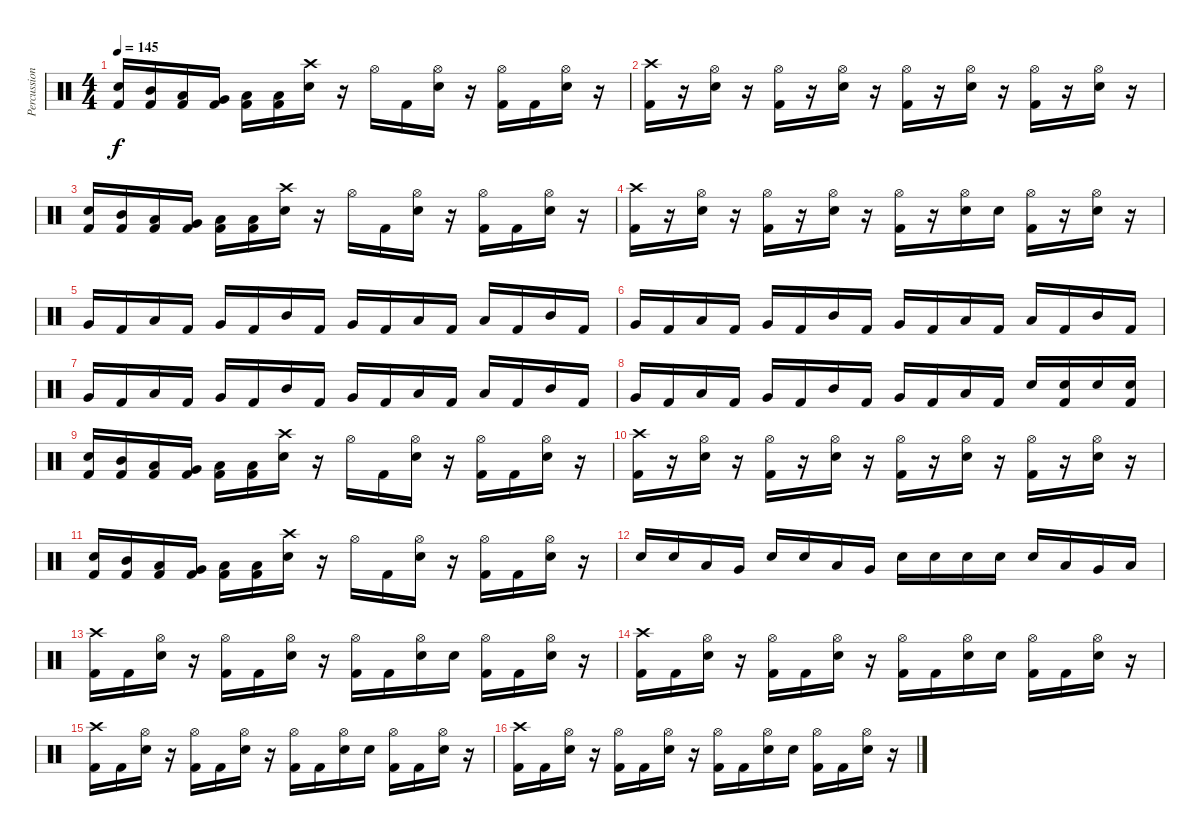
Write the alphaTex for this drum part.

\track ("Percussion - pinch" "Percussion") {instrument percussion}
\staff
\articulation defaults
\ts (4 4)
\tempo 145
\clef neutral
\ks c
("Electric Snare (hit)" "Kick (hit) 2").16{dy f} ("Mid Tom (hit)" "Kick (hit) 2").16 ("Low Tom (hit)" "Kick (hit) 2").16 ("Very Low Tom (hit)" "Kick (hit) 2").16 ("Low Floor Tom (hit)" "Kick (hit) 2").16 ("Low Floor Tom (hit)" "Kick (hit) 2").16 ("Crash high (hit)" "Electric Snare (hit)").16 r.16 "Hi-Hat (open)".16 "Kick (hit) 2".16 ("Hi-Hat (open)" "Electric Snare (hit)").16 r.16 ("Hi-Hat (open)" "Kick (hit) 2").16 "Kick (hit) 2".16 ("Hi-Hat (open)" "Electric Snare (hit)").16 r.16 |
("Crash high (hit)" "Kick (hit) 2").16 r.16 ("Hi-Hat (open)" "Electric Snare (hit)").16 r.16 ("Hi-Hat (open)" "Kick (hit) 2").16 r.16 ("Hi-Hat (open)" "Electric Snare (hit)").16 r.16 ("Hi-Hat (open)" "Kick (hit) 2").16 r.16 ("Hi-Hat (open)" "Electric Snare (hit)").16 r.16 ("Hi-Hat (open)" "Kick (hit) 2").16 r.16 ("Hi-Hat (open)" "Electric Snare (hit)").16 r.16 |
("Electric Snare (hit)" "Kick (hit) 2").16 ("Mid Tom (hit)" "Kick (hit) 2").16 ("Low Tom (hit)" "Kick (hit) 2").16 ("Very Low Tom (hit)" "Kick (hit) 2").16 ("Low Floor Tom (hit)" "Kick (hit) 2").16 ("Low Floor Tom (hit)" "Kick (hit) 2").16 ("Crash high (hit)" "Electric Snare (hit)").16 r.16 "Hi-Hat (open)".16 "Kick (hit) 2".16 ("Hi-Hat (open)" "Electric Snare (hit)").16 r.16 ("Hi-Hat (open)" "Kick (hit) 2").16 "Kick (hit) 2".16 ("Hi-Hat (open)" "Electric Snare (hit)").16 r.16 |
("Crash high (hit)" "Kick (hit) 2").16 r.16 ("Hi-Hat (open)" "Electric Snare (hit)").16 r.16 ("Hi-Hat (open)" "Kick (hit) 2").16 r.16 ("Hi-Hat (open)" "Electric Snare (hit)").16 r.16 ("Hi-Hat (open)" "Kick (hit) 2").16 r.16 ("Hi-Hat (open)" "Electric Snare (hit)").16 "Electric Snare (hit)".16 ("Hi-Hat (open)" "Kick (hit) 2").16 r.16 ("Hi-Hat (open)" "Electric Snare (hit)").16 r.16 |
"Very Low Tom (hit)".16 "Kick (hit) 2".16 "Low Tom (hit)".16 "Kick (hit) 2".16 "Very Low Tom (hit)".16 "Kick (hit) 2".16 "Mid Tom (hit)".16 "Kick (hit) 2".16 "Very Low Tom (hit)".16 "Kick (hit) 2".16 "Low Tom (hit)".16 "Kick (hit) 2".16 "Low Floor Tom (hit)".16 "Kick (hit) 2".16 "Mid Tom (hit)".16 "Kick (hit) 2".16 |
"Very Low Tom (hit)".16 "Kick (hit) 2".16 "Low Tom (hit)".16 "Kick (hit) 2".16 "Very Low Tom (hit)".16 "Kick (hit) 2".16 "Mid Tom (hit)".16 "Kick (hit) 2".16 "Very Low Tom (hit)".16 "Kick (hit) 2".16 "Low Tom (hit)".16 "Kick (hit) 2".16 "Low Floor Tom (hit)".16 "Kick (hit) 2".16 "Mid Tom (hit)".16 "Kick (hit) 2".16 |
"Very Low Tom (hit)".16 "Kick (hit) 2".16 "Low Tom (hit)".16 "Kick (hit) 2".16 "Very Low Tom (hit)".16 "Kick (hit) 2".16 "Mid Tom (hit)".16 "Kick (hit) 2".16 "Very Low Tom (hit)".16 "Kick (hit) 2".16 "Low Tom (hit)".16 "Kick (hit) 2".16 "Low Floor Tom (hit)".16 "Kick (hit) 2".16 "Mid Tom (hit)".16 "Kick (hit) 2".16 |
"Very Low Tom (hit)".16 "Kick (hit) 2".16 "Low Tom (hit)".16 "Kick (hit) 2".16 "Very Low Tom (hit)".16 "Kick (hit) 2".16 "Mid Tom (hit)".16 "Kick (hit) 2".16 "Very Low Tom (hit)".16 "Kick (hit) 2".16 "Low Tom (hit)".16 "Kick (hit) 2".16 "Electric Snare (hit)".16 ("Electric Snare (hit)" "Kick (hit) 2").16 "Electric Snare (hit)".16 ("Electric Snare (hit)" "Kick (hit) 2").16 |
("Electric Snare (hit)" "Kick (hit) 2").16 ("Mid Tom (hit)" "Kick (hit) 2").16 ("Low Tom (hit)" "Kick (hit) 2").16 ("Very Low Tom (hit)" "Kick (hit) 2").16 ("Low Floor Tom (hit)" "Kick (hit) 2").16 ("Low Floor Tom (hit)" "Kick (hit) 2").16 ("Crash high (hit)" "Electric Snare (hit)").16 r.16 "Hi-Hat (open)".16 "Kick (hit) 2".16 ("Hi-Hat (open)" "Electric Snare (hit)").16 r.16 ("Hi-Hat (open)" "Kick (hit) 2").16 "Kick (hit) 2".16 ("Hi-Hat (open)" "Electric Snare (hit)").16 r.16 |
("Crash high (hit)" "Kick (hit) 2").16 r.16 ("Hi-Hat (open)" "Electric Snare (hit)").16 r.16 ("Hi-Hat (open)" "Kick (hit) 2").16 r.16 ("Hi-Hat (open)" "Electric Snare (hit)").16 r.16 ("Hi-Hat (open)" "Kick (hit) 2").16 r.16 ("Hi-Hat (open)" "Electric Snare (hit)").16 r.16 ("Hi-Hat (open)" "Kick (hit) 2").16 r.16 ("Hi-Hat (open)" "Electric Snare (hit)").16 r.16 |
("Electric Snare (hit)" "Kick (hit) 2").16 ("Mid Tom (hit)" "Kick (hit) 2").16 ("Low Tom (hit)" "Kick (hit) 2").16 ("Very Low Tom (hit)" "Kick (hit) 2").16 ("Low Floor Tom (hit)" "Kick (hit) 2").16 ("Low Floor Tom (hit)" "Kick (hit) 2").16 ("Crash high (hit)" "Electric Snare (hit)").16 r.16 "Hi-Hat (open)".16 "Kick (hit) 2".16 ("Hi-Hat (open)" "Electric Snare (hit)").16 r.16 ("Hi-Hat (open)" "Kick (hit) 2").16 "Kick (hit) 2".16 ("Hi-Hat (open)" "Electric Snare (hit)").16 r.16 |
"Electric Snare (hit)".16 "Electric Snare (hit)".16 "Low Tom (hit)".16 "Very Low Tom (hit)".16 "Electric Snare (hit)".16 "Electric Snare (hit)".16 "Low Tom (hit)".16 "Very Low Tom (hit)".16 "Electric Snare (hit)".16 "Electric Snare (hit)".16 "Electric Snare (hit)".16 "Electric Snare (hit)".16 "Electric Snare (hit)".16 "Low Tom (hit)".16 "Very Low Tom (hit)".16 "Low Floor Tom (hit)".16 |
("Crash high (hit)" "Kick (hit) 2").16 "Kick (hit) 2".16 ("Hi-Hat (open)" "Electric Snare (hit)").16 r.16 ("Hi-Hat (open)" "Kick (hit) 2").16 "Kick (hit) 2".16 ("Hi-Hat (open)" "Electric Snare (hit)").16 r.16 ("Hi-Hat (open)" "Kick (hit) 2").16 "Kick (hit) 2".16 ("Hi-Hat (open)" "Electric Snare (hit)").16 "Electric Snare (hit)".16 ("Hi-Hat (open)" "Kick (hit) 2").16 "Kick (hit) 2".16 ("Hi-Hat (open)" "Electric Snare (hit)").16 r.16 |
("Crash high (hit)" "Kick (hit) 2").16 "Kick (hit) 2".16 ("Hi-Hat (open)" "Electric Snare (hit)").16 r.16 ("Hi-Hat (open)" "Kick (hit) 2").16 "Kick (hit) 2".16 ("Hi-Hat (open)" "Electric Snare (hit)").16 r.16 ("Hi-Hat (open)" "Kick (hit) 2").16 "Kick (hit) 2".16 ("Hi-Hat (open)" "Electric Snare (hit)").16 "Electric Snare (hit)".16 ("Hi-Hat (open)" "Kick (hit) 2").16 "Kick (hit) 2".16 ("Hi-Hat (open)" "Electric Snare (hit)").16 r.16 |
("Crash high (hit)" "Kick (hit) 2").16 "Kick (hit) 2".16 ("Hi-Hat (open)" "Electric Snare (hit)").16 r.16 ("Hi-Hat (open)" "Kick (hit) 2").16 "Kick (hit) 2".16 ("Hi-Hat (open)" "Electric Snare (hit)").16 r.16 ("Hi-Hat (open)" "Kick (hit) 2").16 "Kick (hit) 2".16 ("Hi-Hat (open)" "Electric Snare (hit)").16 "Electric Snare (hit)".16 ("Hi-Hat (open)" "Kick (hit) 2").16 "Kick (hit) 2".16 ("Hi-Hat (open)" "Electric Snare (hit)").16 r.16 |
("Crash high (hit)" "Kick (hit) 2").16 "Kick (hit) 2".16 ("Hi-Hat (open)" "Electric Snare (hit)").16 r.16 ("Hi-Hat (open)" "Kick (hit) 2").16 "Kick (hit) 2".16 ("Hi-Hat (open)" "Electric Snare (hit)").16 r.16 ("Hi-Hat (open)" "Kick (hit) 2").16 "Kick (hit) 2".16 ("Hi-Hat (open)" "Electric Snare (hit)").16 "Electric Snare (hit)".16 ("Hi-Hat (open)" "Kick (hit) 2").16 "Kick (hit) 2".16 ("Hi-Hat (open)" "Electric Snare (hit)").16 r.16
